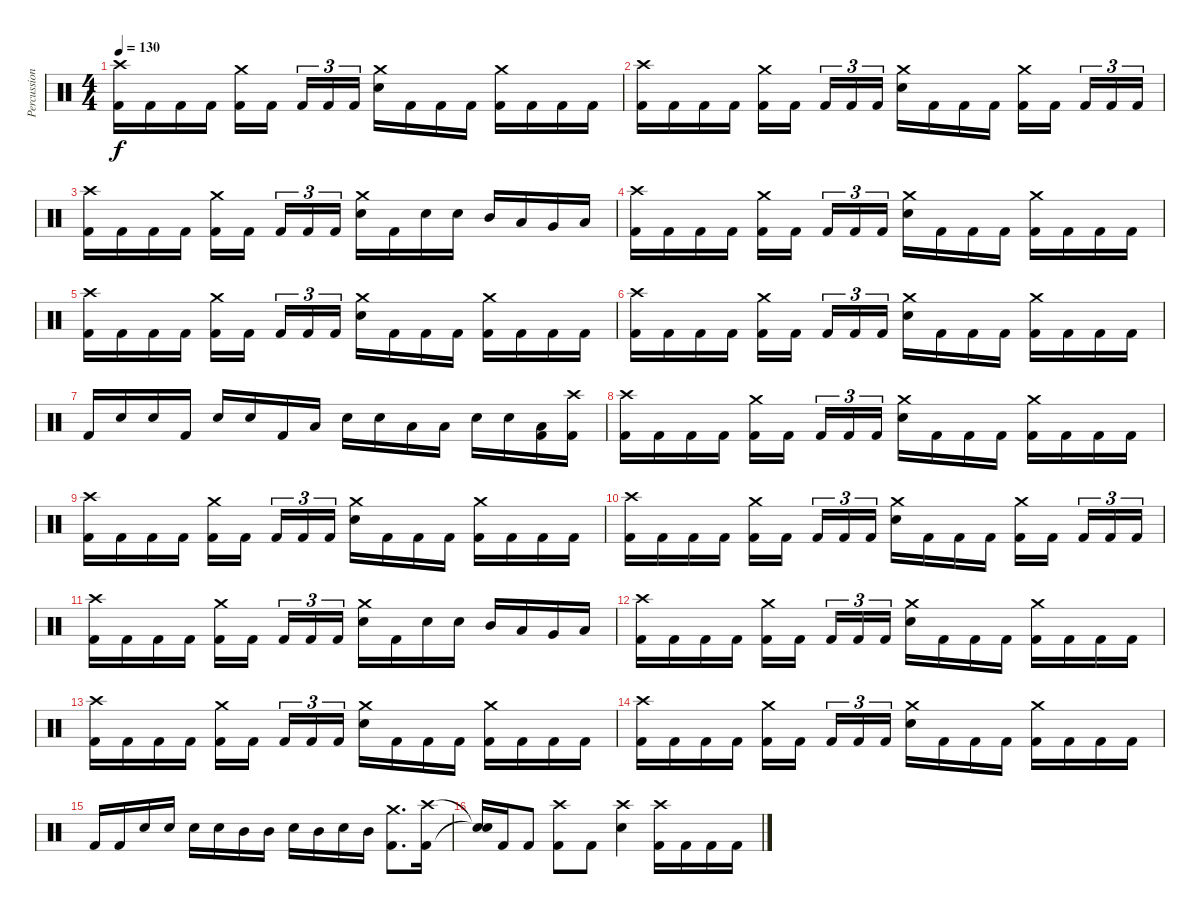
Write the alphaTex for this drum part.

\track ("Percussion" "Percussion") {instrument percussion}
\staff {score}
\articulation defaults
\ts (4 4)
\tempo 130
\clef neutral
\ks c
("Crash high (hit)" "Kick (hit) 2").16{dy f} "Kick (hit) 2".16 "Kick (hit) 2".16 "Kick (hit) 2".16 ("Crash medium (hit)" "Kick (hit) 2").16 "Kick (hit) 2".16{beam splitsecondary} "Kick (hit) 2".16{tu (3 2)} "Kick (hit) 2".16{tu (3 2)} "Kick (hit) 2".16{tu (3 2)} ("Crash medium (hit)" "Electric Snare (hit)").16 "Kick (hit) 2".16 "Kick (hit) 2".16 "Kick (hit) 2".16 ("Crash medium (hit)" "Kick (hit) 2").16 "Kick (hit) 2".16 "Kick (hit) 2".16 "Kick (hit) 2".16 |
("Crash high (hit)" "Kick (hit) 2").16 "Kick (hit) 2".16 "Kick (hit) 2".16 "Kick (hit) 2".16 ("Crash medium (hit)" "Kick (hit) 2").16 "Kick (hit) 2".16{beam splitsecondary} "Kick (hit) 2".16{tu (3 2)} "Kick (hit) 2".16{tu (3 2)} "Kick (hit) 2".16{tu (3 2)} ("Crash medium (hit)" "Electric Snare (hit)").16 "Kick (hit) 2".16 "Kick (hit) 2".16 "Kick (hit) 2".16 ("Crash medium (hit)" "Kick (hit) 2").16 "Kick (hit) 2".16{beam splitsecondary} "Kick (hit) 2".16{tu (3 2)} "Kick (hit) 2".16{tu (3 2)} "Kick (hit) 2".16{tu (3 2)} |
("Crash high (hit)" "Kick (hit) 2").16 "Kick (hit) 2".16 "Kick (hit) 2".16 "Kick (hit) 2".16 ("Crash medium (hit)" "Kick (hit) 2").16 "Kick (hit) 2".16{beam splitsecondary} "Kick (hit) 2".16{tu (3 2)} "Kick (hit) 2".16{tu (3 2)} "Kick (hit) 2".16{tu (3 2)} ("Crash medium (hit)" "Electric Snare (hit)").16 "Kick (hit) 2".16 "Electric Snare (hit)".16 "Electric Snare (hit)".16 "Mid Tom (hit)".16 "Low Tom (hit)".16 "Very Low Tom (hit)".16 "Low Floor Tom (hit)".16 |
("Crash high (hit)" "Kick (hit) 2").16 "Kick (hit) 2".16 "Kick (hit) 2".16 "Kick (hit) 2".16 ("Crash medium (hit)" "Kick (hit) 2").16 "Kick (hit) 2".16{beam splitsecondary} "Kick (hit) 2".16{tu (3 2)} "Kick (hit) 2".16{tu (3 2)} "Kick (hit) 2".16{tu (3 2)} ("Crash medium (hit)" "Electric Snare (hit)").16 "Kick (hit) 2".16 "Kick (hit) 2".16 "Kick (hit) 2".16 ("Crash medium (hit)" "Kick (hit) 2").16 "Kick (hit) 2".16 "Kick (hit) 2".16 "Kick (hit) 2".16 |
("Crash high (hit)" "Kick (hit) 2").16 "Kick (hit) 2".16 "Kick (hit) 2".16 "Kick (hit) 2".16 ("Crash medium (hit)" "Kick (hit) 2").16 "Kick (hit) 2".16{beam splitsecondary} "Kick (hit) 2".16{tu (3 2)} "Kick (hit) 2".16{tu (3 2)} "Kick (hit) 2".16{tu (3 2)} ("Crash medium (hit)" "Electric Snare (hit)").16 "Kick (hit) 2".16 "Kick (hit) 2".16 "Kick (hit) 2".16 ("Crash medium (hit)" "Kick (hit) 2").16 "Kick (hit) 2".16 "Kick (hit) 2".16 "Kick (hit) 2".16 |
("Crash high (hit)" "Kick (hit) 2").16 "Kick (hit) 2".16 "Kick (hit) 2".16 "Kick (hit) 2".16 ("Crash medium (hit)" "Kick (hit) 2").16 "Kick (hit) 2".16{beam splitsecondary} "Kick (hit) 2".16{tu (3 2)} "Kick (hit) 2".16{tu (3 2)} "Kick (hit) 2".16{tu (3 2)} ("Crash medium (hit)" "Electric Snare (hit)").16 "Kick (hit) 2".16 "Kick (hit) 2".16 "Kick (hit) 2".16 ("Crash medium (hit)" "Kick (hit) 2").16 "Kick (hit) 2".16 "Kick (hit) 2".16 "Kick (hit) 2".16 |
"Kick (hit) 2".16 "Electric Snare (hit)".16 "Electric Snare (hit)".16 "Kick (hit) 2".16 "Electric Snare (hit)".16 "Electric Snare (hit)".16 "Kick (hit) 2".16 "Low Floor Tom (hit)".16 "Electric Snare (hit)".16 "Electric Snare (hit)".16 "Low Tom (hit)".16 "Low Tom (hit)".16 "Electric Snare (hit)".16 "Electric Snare (hit)".16 ("Low Floor Tom (hit)" "Kick (hit) 2").16 ("Crash high (hit)" "Kick (hit) 2").16 |
("Crash high (hit)" "Kick (hit) 2").16 "Kick (hit) 2".16 "Kick (hit) 2".16 "Kick (hit) 2".16 ("Crash medium (hit)" "Kick (hit) 2").16 "Kick (hit) 2".16{beam splitsecondary} "Kick (hit) 2".16{tu (3 2)} "Kick (hit) 2".16{tu (3 2)} "Kick (hit) 2".16{tu (3 2)} ("Crash medium (hit)" "Electric Snare (hit)").16 "Kick (hit) 2".16 "Kick (hit) 2".16 "Kick (hit) 2".16 ("Crash medium (hit)" "Kick (hit) 2").16 "Kick (hit) 2".16 "Kick (hit) 2".16 "Kick (hit) 2".16 |
("Crash high (hit)" "Kick (hit) 2").16 "Kick (hit) 2".16 "Kick (hit) 2".16 "Kick (hit) 2".16 ("Crash medium (hit)" "Kick (hit) 2").16 "Kick (hit) 2".16{beam splitsecondary} "Kick (hit) 2".16{tu (3 2)} "Kick (hit) 2".16{tu (3 2)} "Kick (hit) 2".16{tu (3 2)} ("Crash medium (hit)" "Electric Snare (hit)").16 "Kick (hit) 2".16 "Kick (hit) 2".16 "Kick (hit) 2".16 ("Crash medium (hit)" "Kick (hit) 2").16 "Kick (hit) 2".16 "Kick (hit) 2".16 "Kick (hit) 2".16 |
("Crash high (hit)" "Kick (hit) 2").16 "Kick (hit) 2".16 "Kick (hit) 2".16 "Kick (hit) 2".16 ("Crash medium (hit)" "Kick (hit) 2").16 "Kick (hit) 2".16{beam splitsecondary} "Kick (hit) 2".16{tu (3 2)} "Kick (hit) 2".16{tu (3 2)} "Kick (hit) 2".16{tu (3 2)} ("Crash medium (hit)" "Electric Snare (hit)").16 "Kick (hit) 2".16 "Kick (hit) 2".16 "Kick (hit) 2".16 ("Crash medium (hit)" "Kick (hit) 2").16 "Kick (hit) 2".16{beam splitsecondary} "Kick (hit) 2".16{tu (3 2)} "Kick (hit) 2".16{tu (3 2)} "Kick (hit) 2".16{tu (3 2)} |
("Crash high (hit)" "Kick (hit) 2").16 "Kick (hit) 2".16 "Kick (hit) 2".16 "Kick (hit) 2".16 ("Crash medium (hit)" "Kick (hit) 2").16 "Kick (hit) 2".16{beam splitsecondary} "Kick (hit) 2".16{tu (3 2)} "Kick (hit) 2".16{tu (3 2)} "Kick (hit) 2".16{tu (3 2)} ("Crash medium (hit)" "Electric Snare (hit)").16 "Kick (hit) 2".16 "Electric Snare (hit)".16 "Electric Snare (hit)".16 "Mid Tom (hit)".16 "Low Tom (hit)".16 "Very Low Tom (hit)".16 "Low Floor Tom (hit)".16 |
("Crash high (hit)" "Kick (hit) 2").16 "Kick (hit) 2".16 "Kick (hit) 2".16 "Kick (hit) 2".16 ("Crash medium (hit)" "Kick (hit) 2").16 "Kick (hit) 2".16{beam splitsecondary} "Kick (hit) 2".16{tu (3 2)} "Kick (hit) 2".16{tu (3 2)} "Kick (hit) 2".16{tu (3 2)} ("Crash medium (hit)" "Electric Snare (hit)").16 "Kick (hit) 2".16 "Kick (hit) 2".16 "Kick (hit) 2".16 ("Crash medium (hit)" "Kick (hit) 2").16 "Kick (hit) 2".16 "Kick (hit) 2".16 "Kick (hit) 2".16 |
("Crash high (hit)" "Kick (hit) 2").16 "Kick (hit) 2".16 "Kick (hit) 2".16 "Kick (hit) 2".16 ("Crash medium (hit)" "Kick (hit) 2").16 "Kick (hit) 2".16{beam splitsecondary} "Kick (hit) 2".16{tu (3 2)} "Kick (hit) 2".16{tu (3 2)} "Kick (hit) 2".16{tu (3 2)} ("Crash medium (hit)" "Electric Snare (hit)").16 "Kick (hit) 2".16 "Kick (hit) 2".16 "Kick (hit) 2".16 ("Crash medium (hit)" "Kick (hit) 2").16 "Kick (hit) 2".16 "Kick (hit) 2".16 "Kick (hit) 2".16 |
("Crash high (hit)" "Kick (hit) 2").16 "Kick (hit) 2".16 "Kick (hit) 2".16 "Kick (hit) 2".16 ("Crash medium (hit)" "Kick (hit) 2").16 "Kick (hit) 2".16{beam splitsecondary} "Kick (hit) 2".16{tu (3 2)} "Kick (hit) 2".16{tu (3 2)} "Kick (hit) 2".16{tu (3 2)} ("Crash medium (hit)" "Electric Snare (hit)").16 "Kick (hit) 2".16 "Kick (hit) 2".16 "Kick (hit) 2".16 ("Crash medium (hit)" "Kick (hit) 2").16 "Kick (hit) 2".16 "Kick (hit) 2".16 "Kick (hit) 2".16 |
"Kick (hit) 2".16 "Kick (hit) 2".16 "Electric Snare (hit)".16 "Electric Snare (hit)".16 "Electric Snare (hit)".16 "Electric Snare (hit)".16 "Mid Tom (hit)".16 "Mid Tom (hit)".16 "Electric Snare (hit)".16 "Mid Tom (hit)".16 "Electric Snare (hit)".16 "Mid Tom (hit)".16 ("Crash medium (hit)" "Kick (hit) 2").8{d} ("Crash high (hit)" "Kick (hit) 2").16 |
("Snare (hit)"{t} "Snare (hit)"{t}).16 "Kick (hit) 2".16 "Kick (hit) 2".8 ("Crash high (hit)" "Kick (hit) 2").8 "Kick (hit) 2".8 ("Crash high (hit)" "Electric Snare (hit)").4 ("Crash high (hit)" "Kick (hit) 2").16 "Kick (hit) 2".16 "Kick (hit) 2".16 "Kick (hit) 2".16
